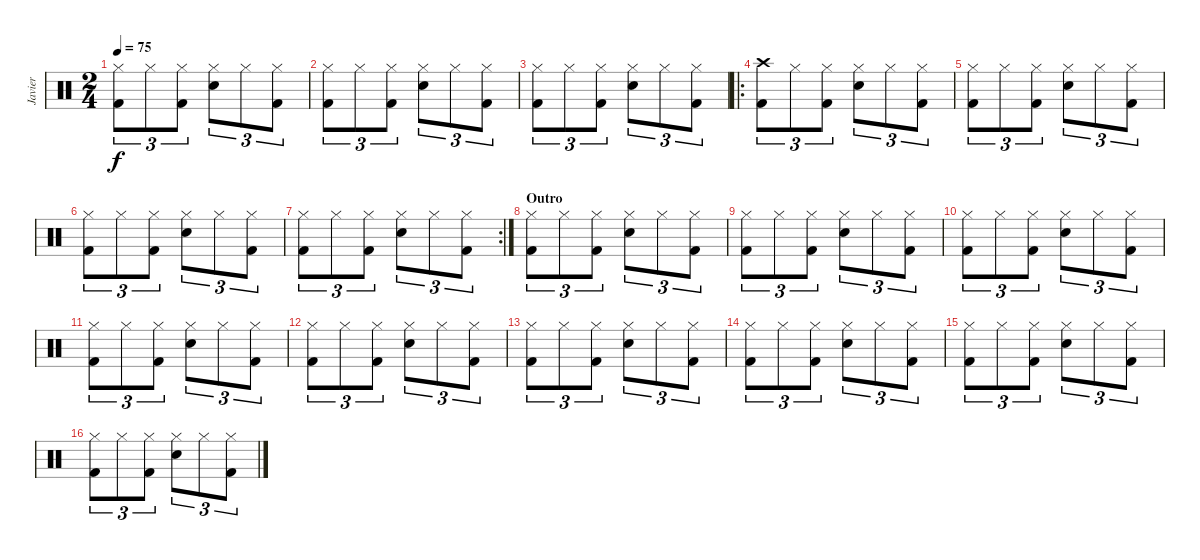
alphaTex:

\track ("Javier" "Javier") {instrument percussion}
\staff {score}
\articulation defaults
\ts (2 4)
\tempo 75
\clef neutral
\ks c
("Hi-Hat (closed)" "Kick (hit) 2").8{tu (3 2) dy f} "Hi-Hat (closed)".8{tu (3 2)} ("Hi-Hat (closed)" "Kick (hit) 2").8{tu (3 2)} ("Hi-Hat (closed)" "Snare (hit) 2").8{tu (3 2)} "Hi-Hat (closed)".8{tu (3 2)} ("Hi-Hat (closed)" "Kick (hit) 2").8{tu (3 2)} |
("Hi-Hat (closed)" "Kick (hit) 2").8{tu (3 2)} "Hi-Hat (closed)".8{tu (3 2)} ("Hi-Hat (closed)" "Kick (hit) 2").8{tu (3 2)} ("Hi-Hat (closed)" "Snare (hit) 2").8{tu (3 2)} "Hi-Hat (closed)".8{tu (3 2)} ("Hi-Hat (closed)" "Kick (hit) 2").8{tu (3 2)} |
("Hi-Hat (closed)" "Kick (hit) 2").8{tu (3 2)} "Hi-Hat (closed)".8{tu (3 2)} ("Hi-Hat (closed)" "Kick (hit) 2").8{tu (3 2)} ("Hi-Hat (closed)" "Snare (hit) 2").8{tu (3 2)} "Hi-Hat (closed)".8{tu (3 2)} ("Hi-Hat (closed)" "Kick (hit) 2").8{tu (3 2)} |
\ro
("Crash high (hit)" "Kick (hit) 2").8{tu (3 2)} "Hi-Hat (closed)".8{tu (3 2)} ("Hi-Hat (closed)" "Kick (hit) 2").8{tu (3 2)} ("Hi-Hat (closed)" "Snare (hit) 2").8{tu (3 2)} "Hi-Hat (closed)".8{tu (3 2)} ("Hi-Hat (closed)" "Kick (hit) 2").8{tu (3 2)} |
("Hi-Hat (closed)" "Kick (hit) 2").8{tu (3 2)} "Hi-Hat (closed)".8{tu (3 2)} ("Hi-Hat (closed)" "Kick (hit) 2").8{tu (3 2)} ("Hi-Hat (closed)" "Snare (hit) 2").8{tu (3 2)} "Hi-Hat (closed)".8{tu (3 2)} ("Hi-Hat (closed)" "Kick (hit) 2").8{tu (3 2)} |
("Hi-Hat (closed)" "Kick (hit) 2").8{tu (3 2)} "Hi-Hat (closed)".8{tu (3 2)} ("Hi-Hat (closed)" "Kick (hit) 2").8{tu (3 2)} ("Hi-Hat (closed)" "Snare (hit) 2").8{tu (3 2)} "Hi-Hat (closed)".8{tu (3 2)} ("Hi-Hat (closed)" "Kick (hit) 2").8{tu (3 2)} |
\rc 2
("Hi-Hat (closed)" "Kick (hit) 2").8{tu (3 2)} "Hi-Hat (closed)".8{tu (3 2)} ("Hi-Hat (closed)" "Kick (hit) 2").8{tu (3 2)} ("Hi-Hat (closed)" "Snare (hit) 2").8{tu (3 2)} "Hi-Hat (closed)".8{tu (3 2)} ("Hi-Hat (closed)" "Kick (hit) 2").8{tu (3 2)} |
\section ("" "Outro")
("Hi-Hat (closed)" "Kick (hit) 2").8{tu (3 2)} "Hi-Hat (closed)".8{tu (3 2)} ("Hi-Hat (closed)" "Kick (hit) 2").8{tu (3 2)} ("Hi-Hat (closed)" "Snare (hit) 2").8{tu (3 2)} "Hi-Hat (closed)".8{tu (3 2)} ("Hi-Hat (closed)" "Kick (hit) 2").8{tu (3 2)} |
("Hi-Hat (closed)" "Kick (hit) 2").8{tu (3 2)} "Hi-Hat (closed)".8{tu (3 2)} ("Hi-Hat (closed)" "Kick (hit) 2").8{tu (3 2)} ("Hi-Hat (closed)" "Snare (hit) 2").8{tu (3 2)} "Hi-Hat (closed)".8{tu (3 2)} ("Hi-Hat (closed)" "Kick (hit) 2").8{tu (3 2)} |
("Hi-Hat (closed)" "Kick (hit) 2").8{tu (3 2)} "Hi-Hat (closed)".8{tu (3 2)} ("Hi-Hat (closed)" "Kick (hit) 2").8{tu (3 2)} ("Hi-Hat (closed)" "Snare (hit) 2").8{tu (3 2)} "Hi-Hat (closed)".8{tu (3 2)} ("Hi-Hat (closed)" "Kick (hit) 2").8{tu (3 2)} |
("Hi-Hat (closed)" "Kick (hit) 2").8{tu (3 2)} "Hi-Hat (closed)".8{tu (3 2)} ("Hi-Hat (closed)" "Kick (hit) 2").8{tu (3 2)} ("Hi-Hat (closed)" "Snare (hit) 2").8{tu (3 2)} "Hi-Hat (closed)".8{tu (3 2)} ("Hi-Hat (closed)" "Kick (hit) 2").8{tu (3 2)} |
("Hi-Hat (closed)" "Kick (hit) 2").8{tu (3 2)} "Hi-Hat (closed)".8{tu (3 2)} ("Hi-Hat (closed)" "Kick (hit) 2").8{tu (3 2)} ("Hi-Hat (closed)" "Snare (hit) 2").8{tu (3 2)} "Hi-Hat (closed)".8{tu (3 2)} ("Hi-Hat (closed)" "Kick (hit) 2").8{tu (3 2)} |
("Hi-Hat (closed)" "Kick (hit) 2").8{tu (3 2)} "Hi-Hat (closed)".8{tu (3 2)} ("Hi-Hat (closed)" "Kick (hit) 2").8{tu (3 2)} ("Hi-Hat (closed)" "Snare (hit) 2").8{tu (3 2)} "Hi-Hat (closed)".8{tu (3 2)} ("Hi-Hat (closed)" "Kick (hit) 2").8{tu (3 2)} |
("Hi-Hat (closed)" "Kick (hit) 2").8{tu (3 2)} "Hi-Hat (closed)".8{tu (3 2)} ("Hi-Hat (closed)" "Kick (hit) 2").8{tu (3 2)} ("Hi-Hat (closed)" "Snare (hit) 2").8{tu (3 2)} "Hi-Hat (closed)".8{tu (3 2)} ("Hi-Hat (closed)" "Kick (hit) 2").8{tu (3 2)} |
("Hi-Hat (closed)" "Kick (hit) 2").8{tu (3 2)} "Hi-Hat (closed)".8{tu (3 2)} ("Hi-Hat (closed)" "Kick (hit) 2").8{tu (3 2)} ("Hi-Hat (closed)" "Snare (hit) 2").8{tu (3 2)} "Hi-Hat (closed)".8{tu (3 2)} ("Hi-Hat (closed)" "Kick (hit) 2").8{tu (3 2)} |
("Hi-Hat (closed)" "Kick (hit) 2").8{tu (3 2)} "Hi-Hat (closed)".8{tu (3 2)} ("Hi-Hat (closed)" "Kick (hit) 2").8{tu (3 2)} ("Hi-Hat (closed)" "Snare (hit) 2").8{tu (3 2)} "Hi-Hat (closed)".8{tu (3 2)} ("Hi-Hat (closed)" "Kick (hit) 2").8{tu (3 2)}
